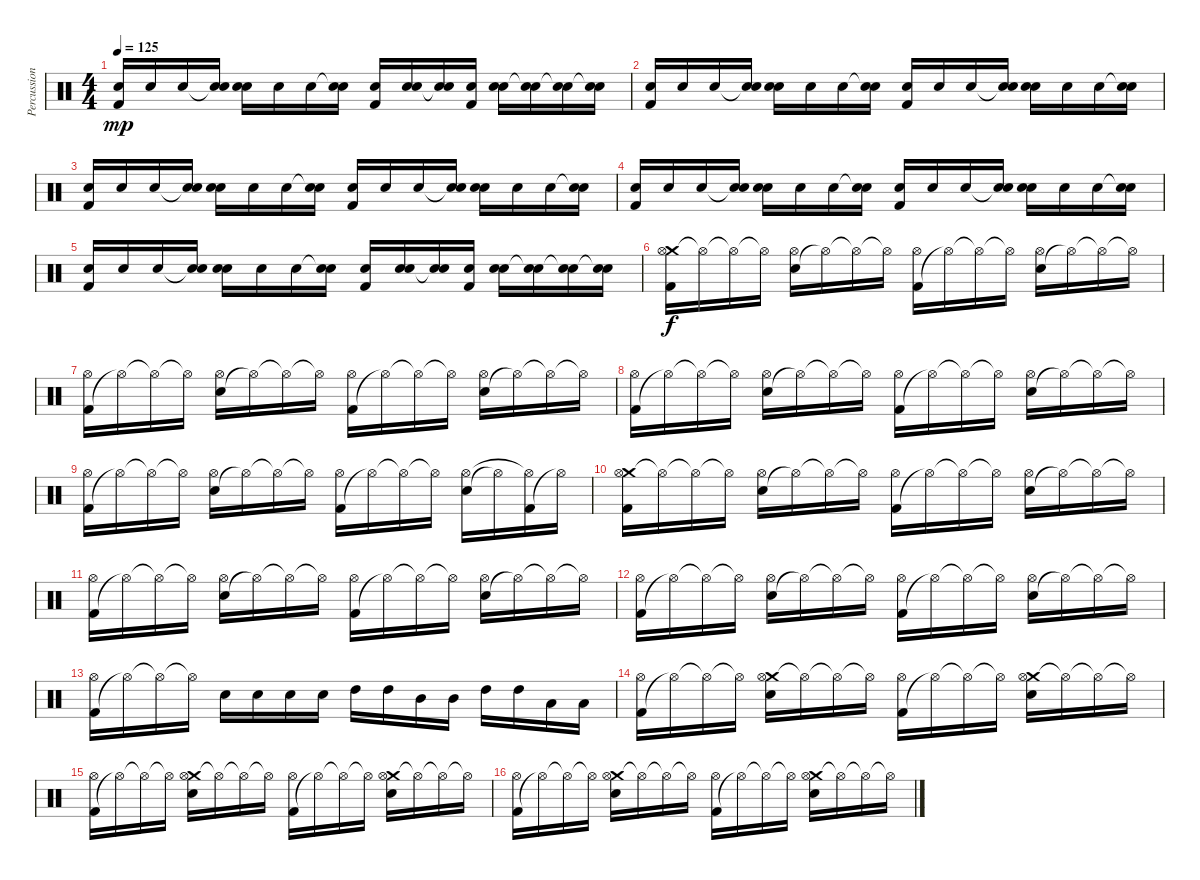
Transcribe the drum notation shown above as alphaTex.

\track ("Percussions" "Percussion") {instrument percussion}
\staff {score}
\articulation defaults
\ts (4 4)
\tempo 125
\clef neutral
\ks c
("Kick (hit) 2" "Electric Snare (hit)").16{dy mp} "Electric Snare (hit)".16 "Electric Snare (hit)".16 ("Snare (hit)"{t} "Electric Snare (hit)").16 ("Electric Snare (hit)" "Electric Snare (hit)").16 "Electric Snare (hit)".16 "Electric Snare (hit)".16 ("Snare (hit)"{t} "Electric Snare (hit)").16 ("Kick (hit) 2" "Electric Snare (hit)").16 ("Electric Snare (hit)" "Electric Snare (hit)").16 ("Electric Snare (hit)"{t} "Electric Snare (hit)").16 ("Kick (hit) 2" "Electric Snare (hit)").16 ("Electric Snare (hit)" "Electric Snare (hit)").16 ("Electric Snare (hit)"{t} "Electric Snare (hit)").16 ("Electric Snare (hit)"{t} "Electric Snare (hit)").16 ("Snare (hit)"{t} "Electric Snare (hit)").16 |
("Kick (hit) 2" "Electric Snare (hit)").16 "Electric Snare (hit)".16 "Electric Snare (hit)".16 ("Snare (hit)"{t} "Electric Snare (hit)").16 ("Electric Snare (hit)" "Electric Snare (hit)").16 "Electric Snare (hit)".16 "Electric Snare (hit)".16 ("Snare (hit)"{t} "Electric Snare (hit)").16 ("Kick (hit) 2" "Electric Snare (hit)").16 "Electric Snare (hit)".16 "Electric Snare (hit)".16 ("Snare (hit)"{t} "Electric Snare (hit)").16 ("Electric Snare (hit)" "Electric Snare (hit)").16 "Electric Snare (hit)".16 "Electric Snare (hit)".16 ("Snare (hit)"{t} "Electric Snare (hit)").16 |
("Kick (hit) 2" "Electric Snare (hit)").16 "Electric Snare (hit)".16 "Electric Snare (hit)".16 ("Snare (hit)"{t} "Electric Snare (hit)").16 ("Electric Snare (hit)" "Electric Snare (hit)").16 "Electric Snare (hit)".16 "Electric Snare (hit)".16 ("Snare (hit)"{t} "Electric Snare (hit)").16 ("Kick (hit) 2" "Electric Snare (hit)").16 "Electric Snare (hit)".16 "Electric Snare (hit)".16 ("Snare (hit)"{t} "Electric Snare (hit)").16 ("Electric Snare (hit)" "Electric Snare (hit)").16 "Electric Snare (hit)".16 "Electric Snare (hit)".16 ("Snare (hit)"{t} "Electric Snare (hit)").16 |
("Kick (hit) 2" "Electric Snare (hit)").16 "Electric Snare (hit)".16 "Electric Snare (hit)".16 ("Snare (hit)"{t} "Electric Snare (hit)").16 ("Electric Snare (hit)" "Electric Snare (hit)").16 "Electric Snare (hit)".16 "Electric Snare (hit)".16 ("Snare (hit)"{t} "Electric Snare (hit)").16 ("Kick (hit) 2" "Electric Snare (hit)").16 "Electric Snare (hit)".16 "Electric Snare (hit)".16 ("Snare (hit)"{t} "Electric Snare (hit)").16 ("Electric Snare (hit)" "Electric Snare (hit)").16 "Electric Snare (hit)".16 "Electric Snare (hit)".16 ("Snare (hit)"{t} "Electric Snare (hit)").16 |
("Kick (hit) 2" "Electric Snare (hit)").16 "Electric Snare (hit)".16 "Electric Snare (hit)".16 ("Snare (hit)"{t} "Electric Snare (hit)").16 ("Electric Snare (hit)" "Electric Snare (hit)").16 "Electric Snare (hit)".16 "Electric Snare (hit)".16 ("Snare (hit)"{t} "Electric Snare (hit)").16 ("Kick (hit) 2" "Electric Snare (hit)").16 ("Electric Snare (hit)" "Electric Snare (hit)").16 ("Electric Snare (hit)"{t} "Electric Snare (hit)").16 ("Kick (hit) 2" "Electric Snare (hit)").16 ("Electric Snare (hit)" "Electric Snare (hit)").16 ("Electric Snare (hit)"{t} "Electric Snare (hit)").16 ("Electric Snare (hit)"{t} "Electric Snare (hit)").16 ("Snare (hit)"{t} "Electric Snare (hit)").16 |
("Crash medium (hit)" "Kick (hit) 2" "Hi-Hat (open)").16{dy f} "Hi-Hat (open)"{t}.16 "Hi-Hat (open)"{t}.16 "Hi-Hat (open)"{t}.16 ("Electric Snare (hit)" "Hi-Hat (open)").16 "Hi-Hat (open)"{t}.16 "Hi-Hat (open)"{t}.16 "Hi-Hat (open)"{t}.16 ("Kick (hit) 2" "Hi-Hat (open)").16 "Hi-Hat (open)"{t}.16 "Hi-Hat (open)"{t}.16 "Hi-Hat (open)"{t}.16 ("Electric Snare (hit)" "Hi-Hat (open)").16 "Hi-Hat (open)"{t}.16 "Hi-Hat (open)"{t}.16 "Hi-Hat (open)"{t}.16 |
("Kick (hit) 2" "Hi-Hat (open)").16 "Hi-Hat (open)"{t}.16 "Hi-Hat (open)"{t}.16 "Hi-Hat (open)"{t}.16 ("Electric Snare (hit)" "Hi-Hat (open)").16 "Hi-Hat (open)"{t}.16 "Hi-Hat (open)"{t}.16 "Hi-Hat (open)"{t}.16 ("Kick (hit) 2" "Hi-Hat (open)").16 "Hi-Hat (open)"{t}.16 "Hi-Hat (open)"{t}.16 "Hi-Hat (open)"{t}.16 ("Electric Snare (hit)" "Hi-Hat (open)").16 "Hi-Hat (open)"{t}.16 "Hi-Hat (open)"{t}.16 "Hi-Hat (open)"{t}.16 |
("Kick (hit) 2" "Hi-Hat (open)").16 "Hi-Hat (open)"{t}.16 "Hi-Hat (open)"{t}.16 "Hi-Hat (open)"{t}.16 ("Electric Snare (hit)" "Hi-Hat (open)").16 "Hi-Hat (open)"{t}.16 "Hi-Hat (open)"{t}.16 "Hi-Hat (open)"{t}.16 ("Kick (hit) 2" "Hi-Hat (open)").16 "Hi-Hat (open)"{t}.16 "Hi-Hat (open)"{t}.16 "Hi-Hat (open)"{t}.16 ("Electric Snare (hit)" "Hi-Hat (open)").16 "Hi-Hat (open)"{t}.16 "Hi-Hat (open)"{t}.16 "Hi-Hat (open)"{t}.16 |
("Kick (hit) 2" "Hi-Hat (open)").16 "Hi-Hat (open)"{t}.16 "Hi-Hat (open)"{t}.16 "Hi-Hat (open)"{t}.16 ("Electric Snare (hit)" "Hi-Hat (open)").16 "Hi-Hat (open)"{t}.16 "Hi-Hat (open)"{t}.16 "Hi-Hat (open)"{t}.16 ("Kick (hit) 2" "Hi-Hat (open)").16 "Hi-Hat (open)"{t}.16 "Hi-Hat (open)"{t}.16 "Hi-Hat (open)"{t}.16 ("Electric Snare (hit)" "Hi-Hat (open)").16 "Hi-Hat (open)"{t}.16 ("Kick (hit) 2" "Hi-Hat (open)"{t}).16 "Hi-Hat (open)"{t}.16 |
("Crash medium (hit)" "Kick (hit) 2" "Hi-Hat (open)").16 "Hi-Hat (open)"{t}.16 "Hi-Hat (open)"{t}.16 "Hi-Hat (open)"{t}.16 ("Electric Snare (hit)" "Hi-Hat (open)").16 "Hi-Hat (open)"{t}.16 "Hi-Hat (open)"{t}.16 "Hi-Hat (open)"{t}.16 ("Kick (hit) 2" "Hi-Hat (open)").16 "Hi-Hat (open)"{t}.16 "Hi-Hat (open)"{t}.16 "Hi-Hat (open)"{t}.16 ("Electric Snare (hit)" "Hi-Hat (open)").16 "Hi-Hat (open)"{t}.16 "Hi-Hat (open)"{t}.16 "Hi-Hat (open)"{t}.16 |
("Kick (hit) 2" "Hi-Hat (open)").16 "Hi-Hat (open)"{t}.16 "Hi-Hat (open)"{t}.16 "Hi-Hat (open)"{t}.16 ("Electric Snare (hit)" "Hi-Hat (open)").16 "Hi-Hat (open)"{t}.16 "Hi-Hat (open)"{t}.16 "Hi-Hat (open)"{t}.16 ("Kick (hit) 2" "Hi-Hat (open)").16 "Hi-Hat (open)"{t}.16 "Hi-Hat (open)"{t}.16 "Hi-Hat (open)"{t}.16 ("Electric Snare (hit)" "Hi-Hat (open)").16 "Hi-Hat (open)"{t}.16 "Hi-Hat (open)"{t}.16 "Hi-Hat (open)"{t}.16 |
("Kick (hit) 2" "Hi-Hat (open)").16 "Hi-Hat (open)"{t}.16 "Hi-Hat (open)"{t}.16 "Hi-Hat (open)"{t}.16 ("Electric Snare (hit)" "Hi-Hat (open)").16 "Hi-Hat (open)"{t}.16 "Hi-Hat (open)"{t}.16 "Hi-Hat (open)"{t}.16 ("Kick (hit) 2" "Hi-Hat (open)").16 "Hi-Hat (open)"{t}.16 "Hi-Hat (open)"{t}.16 "Hi-Hat (open)"{t}.16 ("Electric Snare (hit)" "Hi-Hat (open)").16 "Hi-Hat (open)"{t}.16 "Hi-Hat (open)"{t}.16 "Hi-Hat (open)"{t}.16 |
("Kick (hit) 2" "Hi-Hat (open)").16 "Hi-Hat (open)"{t}.16 "Hi-Hat (open)"{t}.16 "Hi-Hat (open)"{t}.16 "Electric Snare (hit)".16 "Electric Snare (hit)".16 "Electric Snare (hit)".16 "Electric Snare (hit)".16 "High Tom (hit)".16 "High Tom (hit)".16 "Mid Tom (hit)".16 "Mid Tom (hit)".16 "High Tom (hit)".16 "High Tom (hit)".16 "Low Tom (hit)".16 "Low Tom (hit)".16 |
("Kick (hit) 2" "Hi-Hat (open)").16 "Hi-Hat (open)"{t}.16 "Hi-Hat (open)"{t}.16 "Hi-Hat (open)"{t}.16 ("Crash medium (hit)" "Electric Snare (hit)" "Hi-Hat (open)").16 "Hi-Hat (open)"{t}.16 "Hi-Hat (open)"{t}.16 "Hi-Hat (open)"{t}.16 ("Kick (hit) 2" "Hi-Hat (open)").16 "Hi-Hat (open)"{t}.16 "Hi-Hat (open)"{t}.16 "Hi-Hat (open)"{t}.16 ("Crash medium (hit)" "Electric Snare (hit)" "Hi-Hat (open)").16 "Hi-Hat (open)"{t}.16 "Hi-Hat (open)"{t}.16 "Hi-Hat (open)"{t}.16 |
("Kick (hit) 2" "Hi-Hat (open)").16 "Hi-Hat (open)"{t}.16 "Hi-Hat (open)"{t}.16 "Hi-Hat (open)"{t}.16 ("Crash medium (hit)" "Electric Snare (hit)" "Hi-Hat (open)").16 "Hi-Hat (open)"{t}.16 "Hi-Hat (open)"{t}.16 "Hi-Hat (open)"{t}.16 ("Kick (hit) 2" "Hi-Hat (open)").16 "Hi-Hat (open)"{t}.16 "Hi-Hat (open)"{t}.16 "Hi-Hat (open)"{t}.16 ("Crash medium (hit)" "Electric Snare (hit)" "Hi-Hat (open)").16 "Hi-Hat (open)"{t}.16 "Hi-Hat (open)"{t}.16 "Hi-Hat (open)"{t}.16 |
("Kick (hit) 2" "Hi-Hat (open)").16 "Hi-Hat (open)"{t}.16 "Hi-Hat (open)"{t}.16 "Hi-Hat (open)"{t}.16 ("Crash medium (hit)" "Electric Snare (hit)" "Hi-Hat (open)").16 "Hi-Hat (open)"{t}.16 "Hi-Hat (open)"{t}.16 "Hi-Hat (open)"{t}.16 ("Kick (hit) 2" "Hi-Hat (open)").16 "Hi-Hat (open)"{t}.16 "Hi-Hat (open)"{t}.16 "Hi-Hat (open)"{t}.16 ("Crash medium (hit)" "Electric Snare (hit)" "Hi-Hat (open)").16 "Hi-Hat (open)"{t}.16 "Hi-Hat (open)"{t}.16 "Hi-Hat (open)"{t}.16
